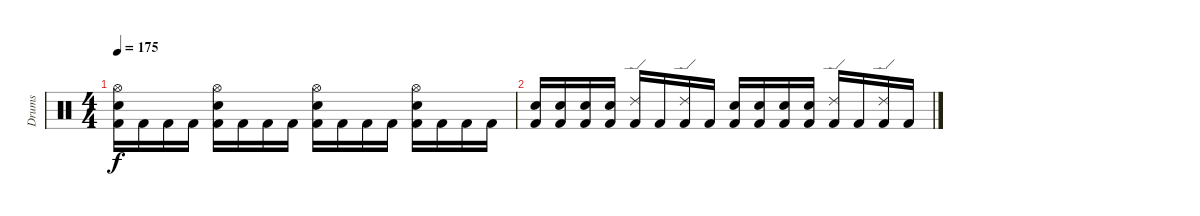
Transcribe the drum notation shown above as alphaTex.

\track ("Drums" "Drums") {instrument percussion}
\staff {score}
\articulation defaults
\ts (4 4)
\tempo 175
\clef neutral
\ks c
("Hi-Hat (open)" "Snare (hit) 2" "Kick (hit) 2").16{dy f} "Kick (hit) 2".16 "Kick (hit) 2".16 "Kick (hit) 2".16 ("Hi-Hat (open)" "Snare (hit) 2" "Kick (hit) 2").16 "Kick (hit) 2".16 "Kick (hit) 2".16 "Kick (hit) 2".16 ("Hi-Hat (open)" "Snare (hit) 2" "Kick (hit) 2").16 "Kick (hit) 2".16 "Kick (hit) 2".16 "Kick (hit) 2".16 ("Hi-Hat (open)" "Snare (hit) 2" "Kick (hit) 2").16 "Kick (hit) 2".16 "Kick (hit) 2".16 "Kick (hit) 2".16 |
("Snare (hit) 2" "Kick (hit) 2").16 ("Snare (hit) 2" "Kick (hit) 2").16 ("Snare (hit) 2" "Kick (hit) 2").16 ("Snare (hit) 2" "Kick (hit) 2").16 ("Ride (edge) 2" "Kick (hit) 2").16 "Kick (hit) 2".16 ("Ride (edge) 2" "Kick (hit) 2").16 "Kick (hit) 2".16 ("Snare (hit) 2" "Kick (hit) 2").16 ("Snare (hit) 2" "Kick (hit) 2").16 ("Snare (hit) 2" "Kick (hit) 2").16 ("Snare (hit) 2" "Kick (hit) 2").16 ("Ride (edge) 2" "Kick (hit) 2").16 "Kick (hit) 2".16 ("Ride (edge) 2" "Kick (hit) 2").16 "Kick (hit) 2".16
